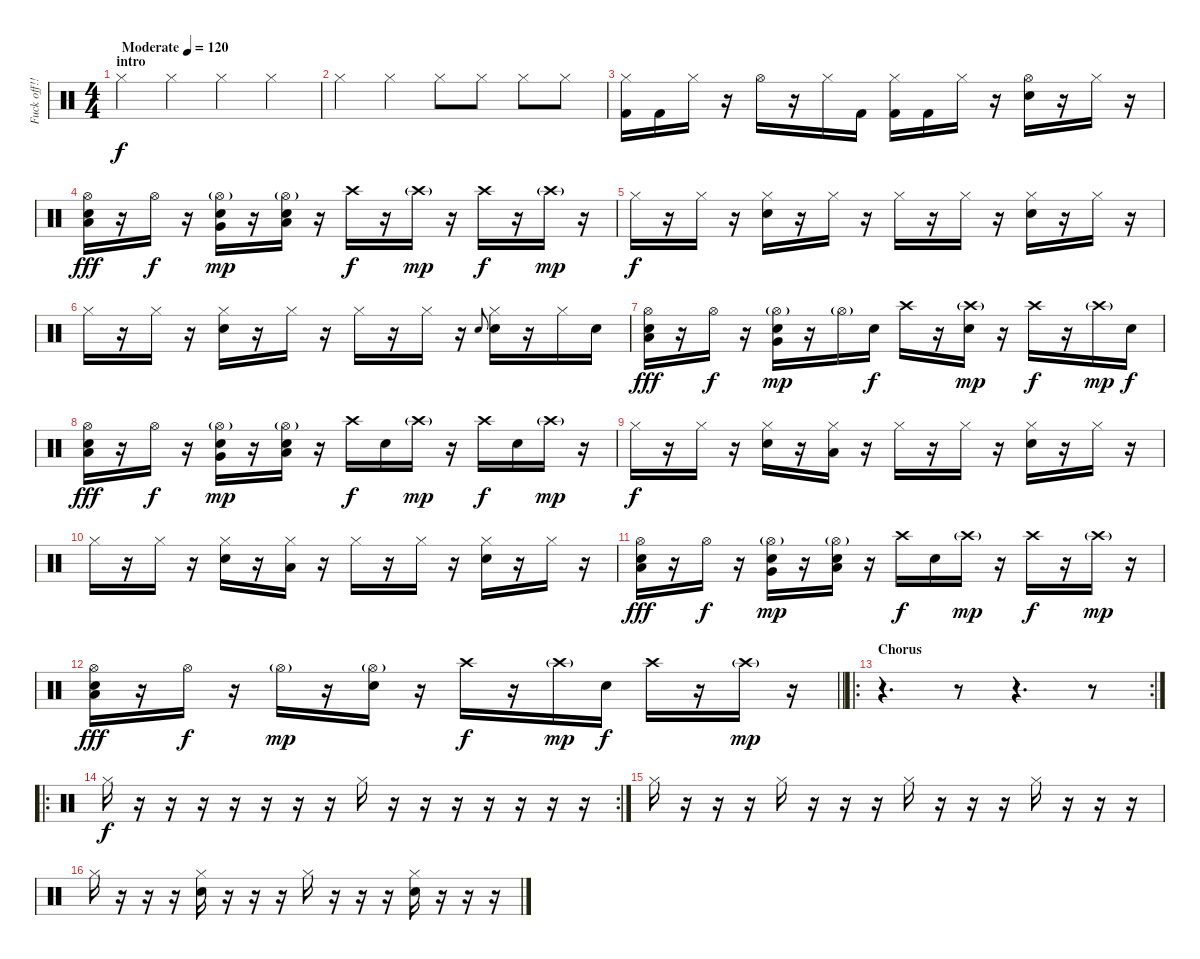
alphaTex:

\track ("Fuck off!!!     ..!." "Fuck off!!") {instrument percussion}
\staff {score}
\articulation defaults
\ts (4 4)
\section ("" "intro")
\tempo (120 "Moderate")
\clef neutral
\ks c "Hi-Hat (closed)".4{dy f} "Hi-Hat (closed)".4 "Hi-Hat (closed)".4 "Hi-Hat (closed)".4
|
"Hi-Hat (closed)".4 "Hi-Hat (closed)".4 "Hi-Hat (closed)".8 "Hi-Hat (closed)".8 "Hi-Hat (closed)".8 "Hi-Hat (closed)".8 |
("Hi-Hat (closed)" "Kick (hit) 2").16 "Kick (hit) 2".16 "Hi-Hat (closed)".16 r.16 "Hi-Hat (open)".16 r.16 "Hi-Hat (closed)".16 "Kick (hit) 2".16 ("Hi-Hat (closed)" "Kick (hit) 2").16 "Kick (hit) 2".16 "Hi-Hat (closed)".16 r.16 ("Hi-Hat (open)" "Snare (hit) 2").16 r.16 "Hi-Hat (closed)".16 r.16 |
("Hi-Hat (open)" "Low Floor Tom (hit)" "Snare (hit) 2").16{dy fff} r.16 "Hi-Hat (open)".16{dy f} r.16 ("Hi-Hat (open)"{g} "Very Low Tom (hit)" "Snare (hit) 2").16{dy mp} r.16 ("Hi-Hat (open)"{g} "Low Tom (hit)" "Snare (hit) 2").16 r.16 "Crash high (hit)".16{dy f} r.16 "Crash high (hit)"{g}.16{dy mp} r.16 "Crash high (hit)".16{dy f} r.16 "Crash high (hit)"{g}.16{dy mp} r.16 |
"Hi-Hat (closed)".16{dy f} r.16 "Hi-Hat (closed)".16 r.16 ("Hi-Hat (closed)" "Snare (hit) 2").16 r.16 "Hi-Hat (closed)".16 r.16 "Hi-Hat (closed)".16 r.16 "Hi-Hat (closed)".16 r.16 ("Hi-Hat (closed)" "Snare (hit) 2").16 r.16 "Hi-Hat (closed)".16 r.16 |
"Hi-Hat (closed)".16 r.16 "Hi-Hat (closed)".16 r.16 ("Hi-Hat (closed)" "Snare (hit) 2").16 r.16 "Hi-Hat (closed)".16 r.16 "Hi-Hat (closed)".16 r.16 "Hi-Hat (closed)".16 r.16 "Snare (hit) 2".8{gr onbeat} ("Hi-Hat (closed)" "Snare (hit) 2").16 r.16 "Hi-Hat (closed)".16 "Snare (hit) 2".16 |
("Hi-Hat (open)" "Low Floor Tom (hit)" "Snare (hit) 2").16{dy fff} r.16 "Hi-Hat (open)".16{dy f} r.16 ("Hi-Hat (open)"{g} "Very Low Tom (hit)" "Snare (hit) 2").16{dy mp} r.16 "Hi-Hat (open)"{g}.16 "Snare (hit) 2".16{dy f} "Crash high (hit)".16 r.16 ("Crash high (hit)"{g} "Snare (hit) 2").16{dy mp} r.16 "Crash high (hit)".16{dy f} r.16 "Crash high (hit)"{g}.16{dy mp} "Snare (hit) 2".16{dy f} |
("Hi-Hat (open)" "Low Floor Tom (hit)" "Snare (hit) 2").16{dy fff} r.16 "Hi-Hat (open)".16{dy f} r.16 ("Hi-Hat (open)"{g} "Very Low Tom (hit)" "Snare (hit) 2").16{dy mp} r.16 ("Hi-Hat (open)"{g} "Low Tom (hit)" "Snare (hit) 2").16 r.16 "Crash high (hit)".16{dy f} "Snare (hit) 2".16 "Crash high (hit)"{g}.16{dy mp} r.16 "Crash high (hit)".16{dy f} "Snare (hit) 2".16 "Crash high (hit)"{g}.16{dy mp} r.16 |
"Hi-Hat (closed)".16{dy f} r.16 "Hi-Hat (closed)".16 r.16 ("Hi-Hat (closed)" "Snare (hit) 2").16 r.16 ("Hi-Hat (closed)" "Low Floor Tom (hit)").16 r.16 "Hi-Hat (closed)".16 r.16 "Hi-Hat (closed)".16 r.16 ("Hi-Hat (closed)" "Snare (hit) 2").16 r.16 "Hi-Hat (closed)".16 r.16 |
"Hi-Hat (closed)".16 r.16 "Hi-Hat (closed)".16 r.16 ("Hi-Hat (closed)" "Snare (hit) 2").16 r.16 ("Hi-Hat (closed)" "Low Floor Tom (hit)").16 r.16 "Hi-Hat (closed)".16 r.16 "Hi-Hat (closed)".16 r.16 ("Hi-Hat (closed)" "Snare (hit) 2").16 r.16 "Hi-Hat (closed)".16 r.16 |
("Hi-Hat (open)" "Low Floor Tom (hit)" "Snare (hit) 2").16{dy fff} r.16 "Hi-Hat (open)".16{dy f} r.16 ("Hi-Hat (open)"{g} "Very Low Tom (hit)" "Snare (hit) 2").16{dy mp} r.16 ("Hi-Hat (open)"{g} "Low Tom (hit)" "Snare (hit) 2").16 r.16 "Crash high (hit)".16{dy f} "Snare (hit) 2".16 "Crash high (hit)"{g}.16{dy mp} r.16 "Crash high (hit)".16{dy f} r.16 "Crash high (hit)"{g}.16{dy mp} r.16 |
\barLineRight lightlight
("Hi-Hat (open)" "Low Floor Tom (hit)" "Snare (hit) 2").16{dy fff} r.16 "Hi-Hat (open)".16{dy f} r.16 "Hi-Hat (open)"{g}.16{dy mp} r.16 ("Hi-Hat (open)"{g} "Snare (hit) 2").16 r.16 "Crash high (hit)".16{dy f} r.16 "Crash high (hit)"{g}.16{dy mp} "Snare (hit) 2".16{dy f} "Crash high (hit)".16 r.16 "Crash high (hit)"{g}.16{dy mp} r.16 |
\ro
\rc 2
\section ("" "Chorus")
r.4{d} r.8 r.4{d} r.8 |
\ro
\rc 2 "Hi-Hat (closed)".16{dy f}
r.16 r.16 r.16 r.16 r.16 r.16 r.16 "Hi-Hat (closed)".16 r.16 r.16 r.16 r.16 r.16 r.16 r.16 |
"Hi-Hat (closed)".16 r.16 r.16 r.16 "Hi-Hat (closed)".16 r.16 r.16 r.16 "Hi-Hat (closed)".16 r.16 r.16 r.16 "Hi-Hat (closed)".16 r.16 r.16 r.16 |
"Hi-Hat (closed)".16 r.16 r.16 r.16 ("Hi-Hat (closed)" "Snare (hit) 2").16 r.16 r.16 r.16 "Hi-Hat (closed)".16 r.16 r.16 r.16 ("Hi-Hat (closed)" "Snare (hit) 2").16 r.16 r.16 r.16
